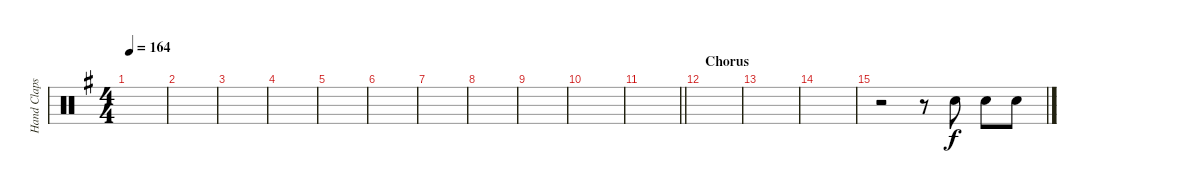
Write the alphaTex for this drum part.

\track ("Hand Claps" "Hand Claps") {instrument percussion}
\staff {score}
\articulation defaults
\ts (4 4)
\tempo 164
\clef neutral
\ks eminor
|
|
|
|
|
|
|
|
|
|
\barLineRight lightlight
|
\section ("" "Chorus")
|
|
|
r.2 r.8 "Hand Clap (hit)".8 "Hand Clap (hit)".8 "Hand Clap (hit)".8
